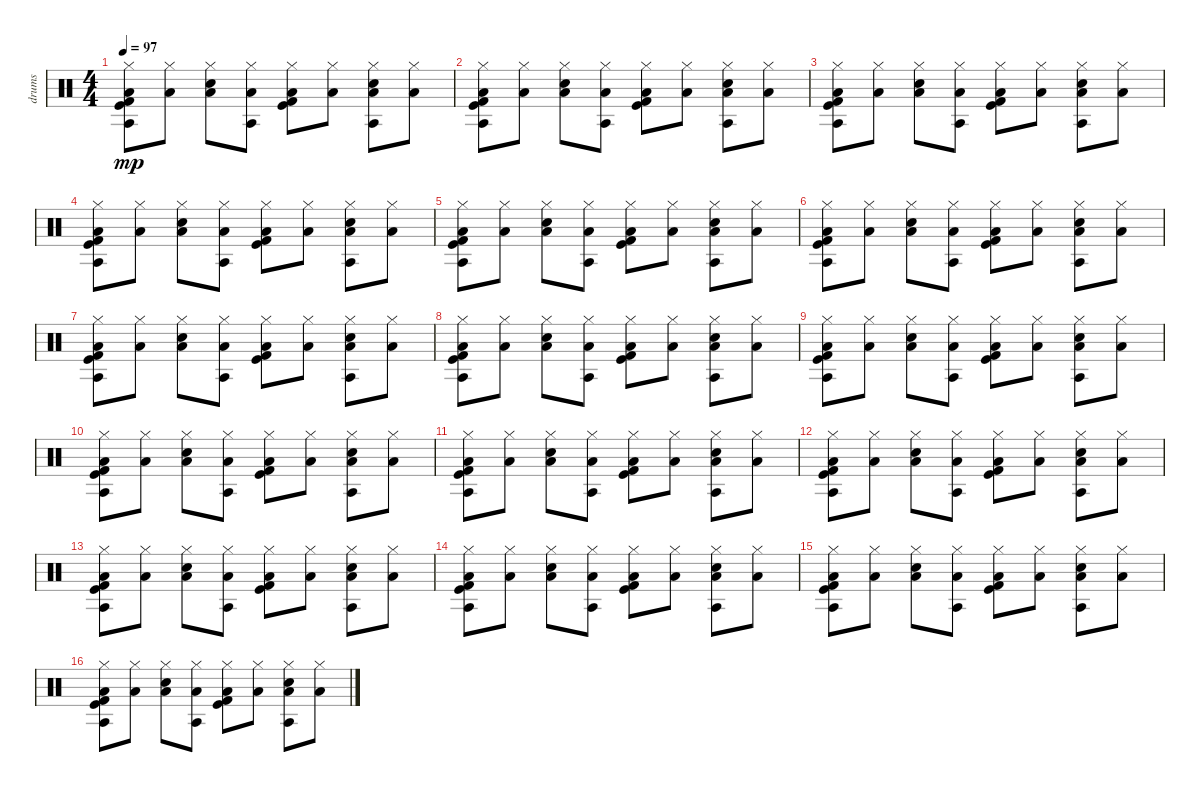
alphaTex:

\track ("drums" "drums") {instrument percussion}
\staff {score}
\articulation defaults
\ts (4 4)
\tempo 97
\clef neutral
\ks c
("Hi-Hat (closed)" "Agogo tow (hit)" "Kick (hit)" "Kick (hit) 2" "Low Floor Tom (hit)").8{dy mp} ("Hi-Hat (closed)" "Low Floor Tom (hit)").8 ("Electric Snare (hit)" "Hi-Hat (closed)" "Low Floor Tom (hit)").8 ("Agogo tow (hit)" "Hi-Hat (closed)" "Low Floor Tom (hit)").8 ("Hi-Hat (closed)" "Kick (hit)" "Kick (hit) 2" "Low Floor Tom (hit)").8 ("Hi-Hat (closed)" "Low Floor Tom (hit)").8 ("Agogo tow (hit)" "Hi-Hat (closed)" "Electric Snare (hit)" "Low Floor Tom (hit)").8 ("Hi-Hat (closed)" "Low Floor Tom (hit)").8 |
("Kick (hit)" "Kick (hit) 2" "Agogo tow (hit)" "Hi-Hat (closed)" "Low Floor Tom (hit)").8 ("Hi-Hat (closed)" "Low Floor Tom (hit)").8 ("Hi-Hat (closed)" "Electric Snare (hit)" "Low Floor Tom (hit)").8 ("Agogo tow (hit)" "Hi-Hat (closed)" "Low Floor Tom (hit)").8 ("Kick (hit)" "Kick (hit) 2" "Hi-Hat (closed)" "Low Floor Tom (hit)").8 ("Hi-Hat (closed)" "Low Floor Tom (hit)").8 ("Agogo tow (hit)" "Hi-Hat (closed)" "Electric Snare (hit)" "Low Floor Tom (hit)").8 ("Hi-Hat (closed)" "Low Floor Tom (hit)").8 |
("Kick (hit)" "Kick (hit) 2" "Hi-Hat (closed)" "Agogo tow (hit)" "Low Floor Tom (hit)").8 ("Hi-Hat (closed)" "Low Floor Tom (hit)").8 ("Hi-Hat (closed)" "Electric Snare (hit)" "Low Floor Tom (hit)").8 ("Hi-Hat (closed)" "Agogo tow (hit)" "Low Floor Tom (hit)").8 ("Kick (hit)" "Kick (hit) 2" "Hi-Hat (closed)" "Low Floor Tom (hit)").8 ("Hi-Hat (closed)" "Low Floor Tom (hit)").8 ("Hi-Hat (closed)" "Agogo tow (hit)" "Electric Snare (hit)" "Low Floor Tom (hit)").8 ("Hi-Hat (closed)" "Low Floor Tom (hit)").8 |
("Kick (hit)" "Kick (hit) 2" "Agogo tow (hit)" "Hi-Hat (closed)" "Low Floor Tom (hit)").8 ("Hi-Hat (closed)" "Low Floor Tom (hit)").8 ("Hi-Hat (closed)" "Electric Snare (hit)" "Low Floor Tom (hit)").8 ("Agogo tow (hit)" "Hi-Hat (closed)" "Low Floor Tom (hit)").8 ("Kick (hit)" "Kick (hit) 2" "Hi-Hat (closed)" "Low Floor Tom (hit)").8 ("Hi-Hat (closed)" "Low Floor Tom (hit)").8 ("Agogo tow (hit)" "Hi-Hat (closed)" "Electric Snare (hit)" "Low Floor Tom (hit)").8 ("Hi-Hat (closed)" "Low Floor Tom (hit)").8 |
("Kick (hit)" "Kick (hit) 2" "Agogo tow (hit)" "Hi-Hat (closed)" "Low Floor Tom (hit)").8 ("Hi-Hat (closed)" "Low Floor Tom (hit)").8 ("Hi-Hat (closed)" "Electric Snare (hit)" "Low Floor Tom (hit)").8 ("Agogo tow (hit)" "Hi-Hat (closed)" "Low Floor Tom (hit)").8 ("Kick (hit)" "Kick (hit) 2" "Hi-Hat (closed)" "Low Floor Tom (hit)").8 ("Hi-Hat (closed)" "Low Floor Tom (hit)").8 ("Agogo tow (hit)" "Hi-Hat (closed)" "Electric Snare (hit)" "Low Floor Tom (hit)").8 ("Hi-Hat (closed)" "Low Floor Tom (hit)").8 |
("Kick (hit)" "Kick (hit) 2" "Agogo tow (hit)" "Hi-Hat (closed)" "Low Floor Tom (hit)").8 ("Hi-Hat (closed)" "Low Floor Tom (hit)").8 ("Hi-Hat (closed)" "Electric Snare (hit)" "Low Floor Tom (hit)").8 ("Agogo tow (hit)" "Hi-Hat (closed)" "Low Floor Tom (hit)").8 ("Kick (hit)" "Kick (hit) 2" "Hi-Hat (closed)" "Low Floor Tom (hit)").8 ("Hi-Hat (closed)" "Low Floor Tom (hit)").8 ("Agogo tow (hit)" "Hi-Hat (closed)" "Electric Snare (hit)" "Low Floor Tom (hit)").8 ("Hi-Hat (closed)" "Low Floor Tom (hit)").8 |
("Kick (hit)" "Kick (hit) 2" "Hi-Hat (closed)" "Agogo tow (hit)" "Low Floor Tom (hit)").8 ("Hi-Hat (closed)" "Low Floor Tom (hit)").8 ("Hi-Hat (closed)" "Electric Snare (hit)" "Low Floor Tom (hit)").8 ("Hi-Hat (closed)" "Agogo tow (hit)" "Low Floor Tom (hit)").8 ("Kick (hit)" "Kick (hit) 2" "Hi-Hat (closed)" "Low Floor Tom (hit)").8 ("Hi-Hat (closed)" "Low Floor Tom (hit)").8 ("Hi-Hat (closed)" "Agogo tow (hit)" "Electric Snare (hit)" "Low Floor Tom (hit)").8 ("Hi-Hat (closed)" "Low Floor Tom (hit)").8 |
("Kick (hit)" "Kick (hit) 2" "Agogo tow (hit)" "Hi-Hat (closed)" "Low Floor Tom (hit)").8 ("Hi-Hat (closed)" "Low Floor Tom (hit)").8 ("Hi-Hat (closed)" "Electric Snare (hit)" "Low Floor Tom (hit)").8 ("Agogo tow (hit)" "Hi-Hat (closed)" "Low Floor Tom (hit)").8 ("Kick (hit)" "Kick (hit) 2" "Hi-Hat (closed)" "Low Floor Tom (hit)").8 ("Hi-Hat (closed)" "Low Floor Tom (hit)").8 ("Agogo tow (hit)" "Hi-Hat (closed)" "Electric Snare (hit)" "Low Floor Tom (hit)").8 ("Hi-Hat (closed)" "Low Floor Tom (hit)").8 |
("Kick (hit)" "Kick (hit) 2" "Hi-Hat (closed)" "Agogo tow (hit)" "Low Floor Tom (hit)").8 ("Hi-Hat (closed)" "Low Floor Tom (hit)").8 ("Hi-Hat (closed)" "Electric Snare (hit)" "Low Floor Tom (hit)").8 ("Hi-Hat (closed)" "Agogo tow (hit)" "Low Floor Tom (hit)").8 ("Kick (hit)" "Kick (hit) 2" "Hi-Hat (closed)" "Low Floor Tom (hit)").8 ("Hi-Hat (closed)" "Low Floor Tom (hit)").8 ("Hi-Hat (closed)" "Agogo tow (hit)" "Electric Snare (hit)" "Low Floor Tom (hit)").8 ("Hi-Hat (closed)" "Low Floor Tom (hit)").8 |
("Kick (hit)" "Kick (hit) 2" "Agogo tow (hit)" "Hi-Hat (closed)" "Low Floor Tom (hit)").8 ("Hi-Hat (closed)" "Low Floor Tom (hit)").8 ("Hi-Hat (closed)" "Electric Snare (hit)" "Low Floor Tom (hit)").8 ("Agogo tow (hit)" "Hi-Hat (closed)" "Low Floor Tom (hit)").8 ("Kick (hit)" "Kick (hit) 2" "Hi-Hat (closed)" "Low Floor Tom (hit)").8 ("Hi-Hat (closed)" "Low Floor Tom (hit)").8 ("Agogo tow (hit)" "Hi-Hat (closed)" "Electric Snare (hit)" "Low Floor Tom (hit)").8 ("Hi-Hat (closed)" "Low Floor Tom (hit)").8 |
("Kick (hit)" "Kick (hit) 2" "Hi-Hat (closed)" "Agogo tow (hit)" "Low Floor Tom (hit)").8 ("Hi-Hat (closed)" "Low Floor Tom (hit)").8 ("Hi-Hat (closed)" "Electric Snare (hit)" "Low Floor Tom (hit)").8 ("Hi-Hat (closed)" "Agogo tow (hit)" "Low Floor Tom (hit)").8 ("Kick (hit)" "Kick (hit) 2" "Hi-Hat (closed)" "Low Floor Tom (hit)").8 ("Hi-Hat (closed)" "Low Floor Tom (hit)").8 ("Hi-Hat (closed)" "Agogo tow (hit)" "Electric Snare (hit)" "Low Floor Tom (hit)").8 ("Hi-Hat (closed)" "Low Floor Tom (hit)").8 |
("Kick (hit)" "Kick (hit) 2" "Hi-Hat (closed)" "Agogo tow (hit)" "Low Floor Tom (hit)").8 ("Hi-Hat (closed)" "Low Floor Tom (hit)").8 ("Hi-Hat (closed)" "Electric Snare (hit)" "Low Floor Tom (hit)").8 ("Hi-Hat (closed)" "Agogo tow (hit)" "Low Floor Tom (hit)").8 ("Kick (hit)" "Kick (hit) 2" "Hi-Hat (closed)" "Low Floor Tom (hit)").8 ("Hi-Hat (closed)" "Low Floor Tom (hit)").8 ("Hi-Hat (closed)" "Agogo tow (hit)" "Electric Snare (hit)" "Low Floor Tom (hit)").8 ("Hi-Hat (closed)" "Low Floor Tom (hit)").8 |
("Kick (hit)" "Kick (hit) 2" "Agogo tow (hit)" "Hi-Hat (closed)" "Low Floor Tom (hit)").8 ("Hi-Hat (closed)" "Low Floor Tom (hit)").8 ("Hi-Hat (closed)" "Electric Snare (hit)" "Low Floor Tom (hit)").8 ("Agogo tow (hit)" "Hi-Hat (closed)" "Low Floor Tom (hit)").8 ("Kick (hit)" "Kick (hit) 2" "Hi-Hat (closed)" "Low Floor Tom (hit)").8 ("Hi-Hat (closed)" "Low Floor Tom (hit)").8 ("Agogo tow (hit)" "Hi-Hat (closed)" "Electric Snare (hit)" "Low Floor Tom (hit)").8 ("Hi-Hat (closed)" "Low Floor Tom (hit)").8 |
("Kick (hit)" "Kick (hit) 2" "Hi-Hat (closed)" "Agogo tow (hit)" "Low Floor Tom (hit)").8 ("Hi-Hat (closed)" "Low Floor Tom (hit)").8 ("Hi-Hat (closed)" "Electric Snare (hit)" "Low Floor Tom (hit)").8 ("Hi-Hat (closed)" "Agogo tow (hit)" "Low Floor Tom (hit)").8 ("Kick (hit)" "Kick (hit) 2" "Hi-Hat (closed)" "Low Floor Tom (hit)").8 ("Hi-Hat (closed)" "Low Floor Tom (hit)").8 ("Hi-Hat (closed)" "Agogo tow (hit)" "Electric Snare (hit)" "Low Floor Tom (hit)").8 ("Hi-Hat (closed)" "Low Floor Tom (hit)").8 |
("Kick (hit)" "Kick (hit) 2" "Agogo tow (hit)" "Hi-Hat (closed)" "Low Floor Tom (hit)").8 ("Hi-Hat (closed)" "Low Floor Tom (hit)").8 ("Hi-Hat (closed)" "Electric Snare (hit)" "Low Floor Tom (hit)").8 ("Agogo tow (hit)" "Hi-Hat (closed)" "Low Floor Tom (hit)").8 ("Kick (hit)" "Kick (hit) 2" "Hi-Hat (closed)" "Low Floor Tom (hit)").8 ("Hi-Hat (closed)" "Low Floor Tom (hit)").8 ("Agogo tow (hit)" "Hi-Hat (closed)" "Electric Snare (hit)" "Low Floor Tom (hit)").8 ("Hi-Hat (closed)" "Low Floor Tom (hit)").8 |
("Kick (hit)" "Kick (hit) 2" "Hi-Hat (closed)" "Agogo tow (hit)" "Low Floor Tom (hit)").8 ("Hi-Hat (closed)" "Low Floor Tom (hit)").8 ("Hi-Hat (closed)" "Electric Snare (hit)" "Low Floor Tom (hit)").8 ("Hi-Hat (closed)" "Agogo tow (hit)" "Low Floor Tom (hit)").8 ("Kick (hit)" "Kick (hit) 2" "Hi-Hat (closed)" "Low Floor Tom (hit)").8 ("Hi-Hat (closed)" "Low Floor Tom (hit)").8 ("Hi-Hat (closed)" "Agogo tow (hit)" "Electric Snare (hit)" "Low Floor Tom (hit)").8 ("Hi-Hat (closed)" "Low Floor Tom (hit)").8
